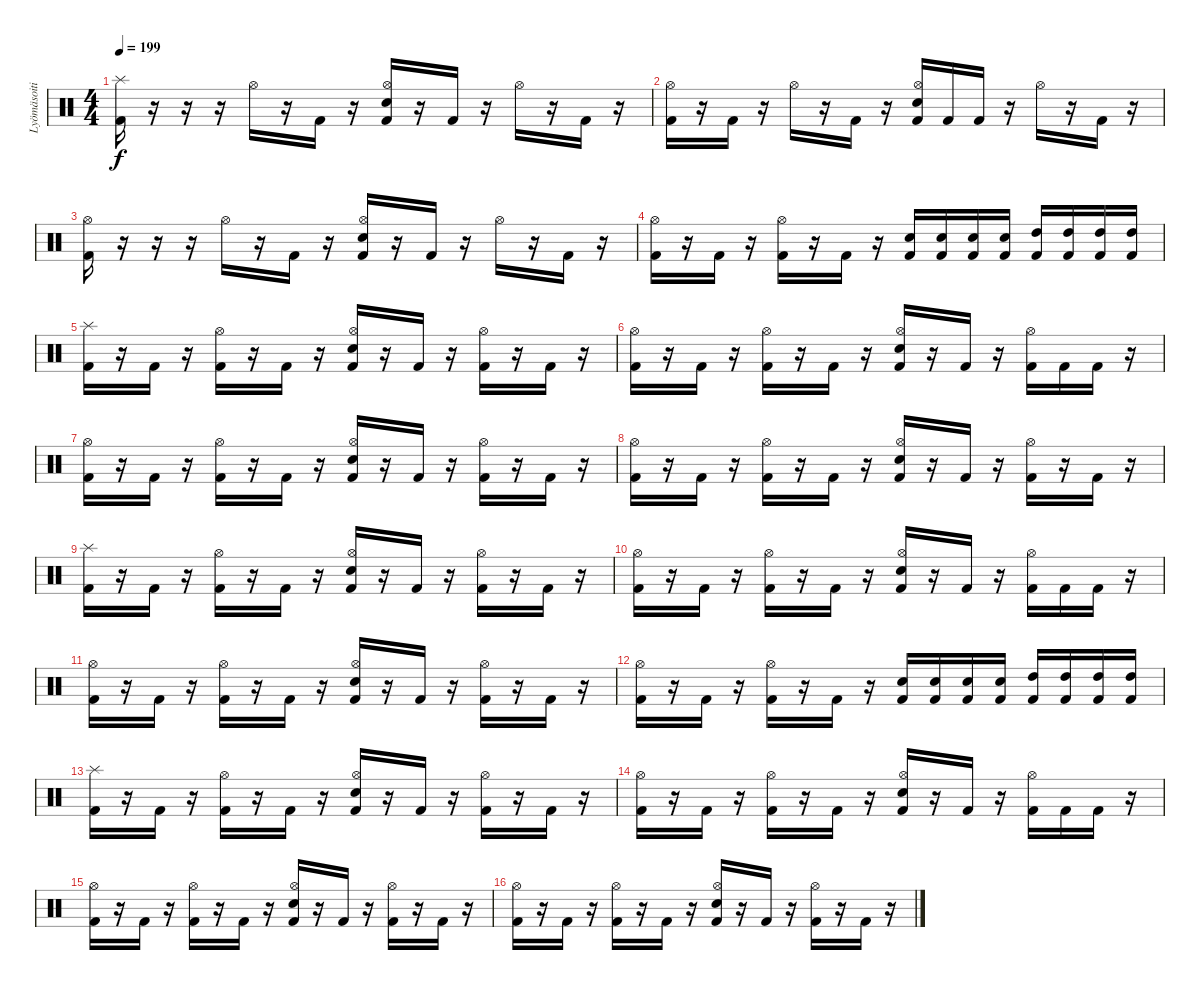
\track ("Lyömäsoitin" "Lyömäsoiti") {instrument percussion}
\staff {score}
\articulation defaults
\ts (4 4)
\tempo 199
\clef neutral
\ks c
("Kick (hit) 2" "Splash (hit)").16{dy f} r.16 r.16 r.16 "Hi-Hat (open)".16 r.16 "Kick (hit) 2".16 r.16 ("Kick (hit) 2" "Hi-Hat (open)" "Snare (hit) 2").16 r.16 "Kick (hit) 2".16 r.16 "Hi-Hat (open)".16 r.16 "Kick (hit) 2".16 r.16 |
("Kick (hit) 2" "Hi-Hat (open)").16 r.16 "Kick (hit) 2".16 r.16 "Hi-Hat (open)".16 r.16 "Kick (hit) 2".16 r.16 ("Kick (hit) 2" "Hi-Hat (open)" "Snare (hit) 2").16 "Kick (hit) 2".16 "Kick (hit) 2".16 r.16 "Hi-Hat (open)".16 r.16 "Kick (hit) 2".16 r.16 |
("Kick (hit) 2" "Hi-Hat (open)").16 r.16 r.16 r.16 "Hi-Hat (open)".16 r.16 "Kick (hit) 2".16 r.16 ("Kick (hit) 2" "Hi-Hat (open)" "Snare (hit) 2").16 r.16 "Kick (hit) 2".16 r.16 "Hi-Hat (open)".16 r.16 "Kick (hit) 2".16 r.16 |
("Kick (hit) 2" "Hi-Hat (open)").16 r.16 "Kick (hit) 2".16 r.16 ("Kick (hit) 2" "Hi-Hat (open)").16 r.16 "Kick (hit) 2".16 r.16 ("Kick (hit) 2" "Snare (hit) 2").16 ("Kick (hit) 2" "Snare (hit) 2").16 ("Kick (hit) 2" "Snare (hit) 2").16 ("Kick (hit) 2" "Snare (hit) 2").16 ("Kick (hit) 2" "High Tom (hit)").16 ("Kick (hit) 2" "High Tom (hit)").16 ("Kick (hit) 2" "High Tom (hit)").16 ("Kick (hit) 2" "High Tom (hit)").16 |
("Kick (hit) 2" "Splash (hit)").16 r.16 "Kick (hit) 2".16 r.16 ("Kick (hit) 2" "Hi-Hat (open)").16 r.16 "Kick (hit) 2".16 r.16 ("Kick (hit) 2" "Hi-Hat (open)" "Snare (hit) 2").16 r.16 "Kick (hit) 2".16 r.16 ("Kick (hit) 2" "Hi-Hat (open)").16 r.16 "Kick (hit) 2".16 r.16 |
("Kick (hit) 2" "Hi-Hat (open)").16 r.16 "Kick (hit) 2".16 r.16 ("Kick (hit) 2" "Hi-Hat (open)").16 r.16 "Kick (hit) 2".16 r.16 ("Kick (hit) 2" "Hi-Hat (open)" "Snare (hit) 2").16 r.16 "Kick (hit) 2".16 r.16 ("Kick (hit) 2" "Hi-Hat (open)").16 "Kick (hit) 2".16 "Kick (hit) 2".16 r.16 |
("Kick (hit) 2" "Hi-Hat (open)").16 r.16 "Kick (hit) 2".16 r.16 ("Kick (hit) 2" "Hi-Hat (open)").16 r.16 "Kick (hit) 2".16 r.16 ("Kick (hit) 2" "Hi-Hat (open)" "Snare (hit) 2").16 r.16 "Kick (hit) 2".16 r.16 ("Kick (hit) 2" "Hi-Hat (open)").16 r.16 "Kick (hit) 2".16 r.16 |
("Kick (hit) 2" "Hi-Hat (open)").16 r.16 "Kick (hit) 2".16 r.16 ("Kick (hit) 2" "Hi-Hat (open)").16 r.16 "Kick (hit) 2".16 r.16 ("Kick (hit) 2" "Hi-Hat (open)" "Snare (hit) 2").16 r.16 "Kick (hit) 2".16 r.16 ("Kick (hit) 2" "Hi-Hat (open)").16 r.16 "Kick (hit) 2".16 r.16 |
("Kick (hit) 2" "Splash (hit)").16 r.16 "Kick (hit) 2".16 r.16 ("Kick (hit) 2" "Hi-Hat (open)").16 r.16 "Kick (hit) 2".16 r.16 ("Kick (hit) 2" "Hi-Hat (open)" "Snare (hit) 2").16 r.16 "Kick (hit) 2".16 r.16 ("Kick (hit) 2" "Hi-Hat (open)").16 r.16 "Kick (hit) 2".16 r.16 |
("Kick (hit) 2" "Hi-Hat (open)").16 r.16 "Kick (hit) 2".16 r.16 ("Kick (hit) 2" "Hi-Hat (open)").16 r.16 "Kick (hit) 2".16 r.16 ("Kick (hit) 2" "Hi-Hat (open)" "Snare (hit) 2").16 r.16 "Kick (hit) 2".16 r.16 ("Kick (hit) 2" "Hi-Hat (open)").16 "Kick (hit) 2".16 "Kick (hit) 2".16 r.16 |
("Kick (hit) 2" "Hi-Hat (open)").16 r.16 "Kick (hit) 2".16 r.16 ("Kick (hit) 2" "Hi-Hat (open)").16 r.16 "Kick (hit) 2".16 r.16 ("Kick (hit) 2" "Hi-Hat (open)" "Snare (hit) 2").16 r.16 "Kick (hit) 2".16 r.16 ("Kick (hit) 2" "Hi-Hat (open)").16 r.16 "Kick (hit) 2".16 r.16 |
("Kick (hit) 2" "Hi-Hat (open)").16 r.16 "Kick (hit) 2".16 r.16 ("Kick (hit) 2" "Hi-Hat (open)").16 r.16 "Kick (hit) 2".16 r.16 ("Kick (hit) 2" "Snare (hit) 2").16 ("Kick (hit) 2" "Snare (hit) 2").16 ("Kick (hit) 2" "Snare (hit) 2").16 ("Kick (hit) 2" "Snare (hit) 2").16 ("Kick (hit) 2" "High Tom (hit)").16 ("Kick (hit) 2" "High Tom (hit)").16 ("Kick (hit) 2" "High Tom (hit)").16 ("Kick (hit) 2" "High Tom (hit)").16 |
("Kick (hit) 2" "Splash (hit)").16 r.16 "Kick (hit) 2".16 r.16 ("Kick (hit) 2" "Hi-Hat (open)").16 r.16 "Kick (hit) 2".16 r.16 ("Kick (hit) 2" "Hi-Hat (open)" "Snare (hit) 2").16 r.16 "Kick (hit) 2".16 r.16 ("Kick (hit) 2" "Hi-Hat (open)").16 r.16 "Kick (hit) 2".16 r.16 |
("Kick (hit) 2" "Hi-Hat (open)").16 r.16 "Kick (hit) 2".16 r.16 ("Kick (hit) 2" "Hi-Hat (open)").16 r.16 "Kick (hit) 2".16 r.16 ("Kick (hit) 2" "Hi-Hat (open)" "Snare (hit) 2").16 r.16 "Kick (hit) 2".16 r.16 ("Kick (hit) 2" "Hi-Hat (open)").16 "Kick (hit) 2".16 "Kick (hit) 2".16 r.16 |
("Kick (hit) 2" "Hi-Hat (open)").16 r.16 "Kick (hit) 2".16 r.16 ("Kick (hit) 2" "Hi-Hat (open)").16 r.16 "Kick (hit) 2".16 r.16 ("Kick (hit) 2" "Hi-Hat (open)" "Snare (hit) 2").16 r.16 "Kick (hit) 2".16 r.16 ("Kick (hit) 2" "Hi-Hat (open)").16 r.16 "Kick (hit) 2".16 r.16 |
("Kick (hit) 2" "Hi-Hat (open)").16 r.16 "Kick (hit) 2".16 r.16 ("Kick (hit) 2" "Hi-Hat (open)").16 r.16 "Kick (hit) 2".16 r.16 ("Kick (hit) 2" "Hi-Hat (open)" "Snare (hit) 2").16 r.16 "Kick (hit) 2".16 r.16 ("Kick (hit) 2" "Hi-Hat (open)").16 r.16 "Kick (hit) 2".16 r.16
